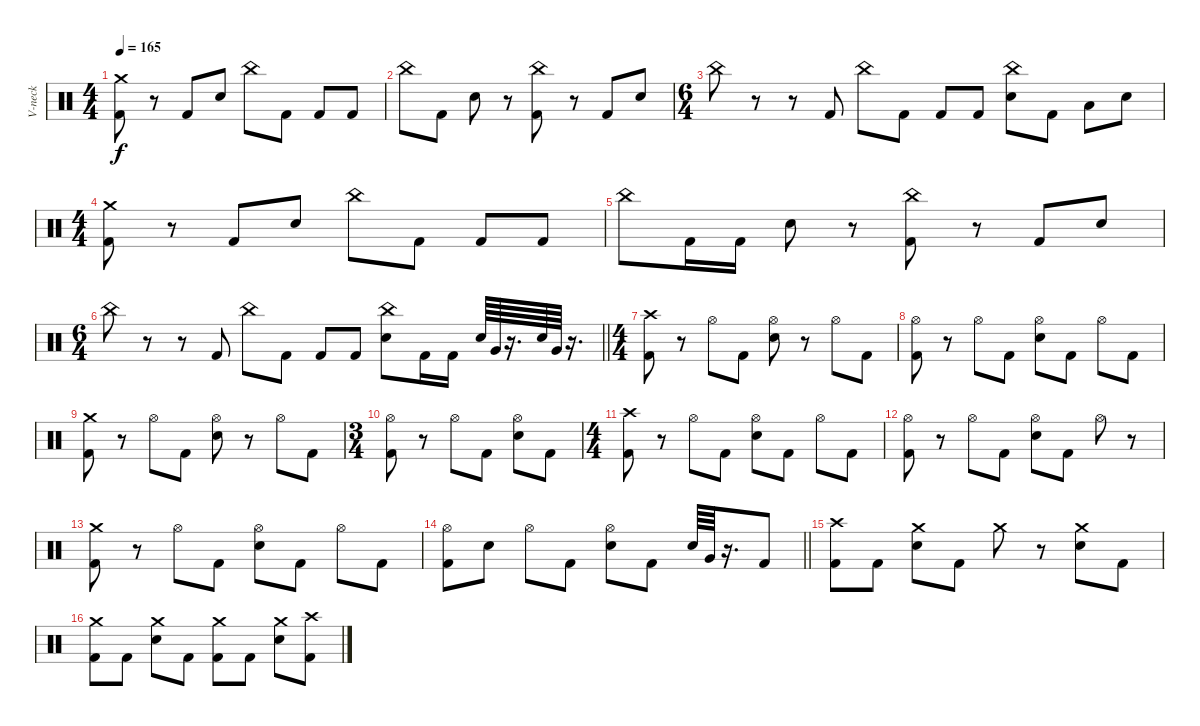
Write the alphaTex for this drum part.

\track ("V-neck" "V-neck") {instrument percussion}
\staff {score}
\articulation defaults
\ts (4 4)
\section ("" "")
\tempo 165
\clef neutral
\ks c
("Crash medium (hit)" "Kick (hit) 2").8{dy f} r.8 "Kick (hit) 2".8 "Electric Snare (hit)".8 "China (hit)".8 "Kick (hit) 2".8 "Kick (hit) 2".8 "Kick (hit) 2".8 |
"China (hit)".8 "Kick (hit) 2".8 "Electric Snare (hit)".8 r.8 ("China (hit)" "Kick (hit) 2").8 r.8 "Kick (hit) 2".8 "Electric Snare (hit)".8 |
\ts (6 4)
"China (hit)".8 r.8 r.8 "Kick (hit) 2".8 "China (hit)".8 "Kick (hit) 2".8 "Kick (hit) 2".8 "Kick (hit) 2".8 ("China (hit)" "Electric Snare (hit)").8 "Kick (hit) 2".8 "Low Tom (hit)".8 "Electric Snare (hit)".8 |
\ts (4 4)
("Crash medium (hit)" "Kick (hit) 2").8 r.8 "Kick (hit) 2".8 "Electric Snare (hit)".8 "China (hit)".8 "Kick (hit) 2".8 "Kick (hit) 2".8 "Kick (hit) 2".8 |
"China (hit)".8 "Kick (hit) 2".16 "Kick (hit) 2".16 "Electric Snare (hit)".8 r.8 ("China (hit)" "Kick (hit) 2").8 r.8 "Kick (hit) 2".8 "Electric Snare (hit)".8 |
\ts (6 4)
\barLineRight lightlight "China (hit)".8
r.8 r.8 "Kick (hit) 2".8 "China (hit)".8 "Kick (hit) 2".8 "Kick (hit) 2".8 "Kick (hit) 2".8 ("China (hit)" "Electric Snare (hit)").8 "Kick (hit) 2".16 "Kick (hit) 2".16 "Electric Snare (hit)".64 "Very Low Tom (hit)".64 r.16{d} "Electric Snare (hit)".64 "Very Low Tom (hit)".64 r.16{d} |
\ts (4 4)
\section ("" "")
("Crash high (hit)" "Kick (hit) 2").8 r.8 "Hi-Hat (open)".8 "Kick (hit) 2".8 ("Hi-Hat (open)" "Electric Snare (hit)").8 r.8 "Hi-Hat (open)".8 "Kick (hit) 2".8 |
("Hi-Hat (open)" "Kick (hit) 2").8 r.8 "Hi-Hat (open)".8 "Kick (hit) 2".8 ("Hi-Hat (open)" "Electric Snare (hit)").8 "Kick (hit) 2".8 "Hi-Hat (open)".8 "Kick (hit) 2".8 |
("Crash medium (hit)" "Kick (hit) 2").8 r.8 "Hi-Hat (open)".8 "Kick (hit) 2".8 ("Hi-Hat (open)" "Electric Snare (hit)").8 r.8 "Hi-Hat (open)".8 "Kick (hit) 2".8 |
\ts (3 4)
("Hi-Hat (open)" "Kick (hit) 2").8 r.8 "Hi-Hat (open)".8 "Kick (hit) 2".8 ("Hi-Hat (open)" "Electric Snare (hit)").8 "Kick (hit) 2".8 |
\ts (4 4)
("Crash high (hit)" "Kick (hit) 2").8 r.8 "Hi-Hat (open)".8 "Kick (hit) 2".8 ("Hi-Hat (open)" "Electric Snare (hit)").8 "Kick (hit) 2".8 "Hi-Hat (open)".8 "Kick (hit) 2".8 |
("Hi-Hat (open)" "Kick (hit) 2").8 r.8 "Hi-Hat (open)".8 "Kick (hit) 2".8 ("Hi-Hat (open)" "Electric Snare (hit)").8 "Kick (hit) 2".8 "Hi-Hat (open)".8 r.8 |
("Crash medium (hit)" "Kick (hit) 2").8 r.8 "Hi-Hat (open)".8 "Kick (hit) 2".8 ("Hi-Hat (open)" "Electric Snare (hit)").8 "Kick (hit) 2".8 "Hi-Hat (open)".8 "Kick (hit) 2".8 |
\barLineRight lightlight
("Hi-Hat (open)" "Kick (hit) 2").8 "Electric Snare (hit)".8 "Hi-Hat (open)".8 "Kick (hit) 2".8 ("Hi-Hat (open)" "Electric Snare (hit)").8 "Kick (hit) 2".8 "Electric Snare (hit)".64 "Very Low Tom (hit)".64 r.16{d} "Kick (hit) 2".8 |
\section ("" "")
("Crash high (hit)" "Kick (hit) 2").8 "Kick (hit) 2".8 ("Crash medium (hit)" "Electric Snare (hit)").8 "Kick (hit) 2".8 "Crash medium (hit)".8 r.8 ("Crash medium (hit)" "Electric Snare (hit)").8 "Kick (hit) 2".8 |
("Crash medium (hit)" "Kick (hit) 2").8 "Kick (hit) 2".8 ("Crash medium (hit)" "Electric Snare (hit)").8 "Kick (hit) 2".8 ("Crash medium (hit)" "Kick (hit) 2").8 "Kick (hit) 2".8 ("Crash medium (hit)" "Electric Snare (hit)").8 ("Crash high (hit)" "Kick (hit) 2").8
